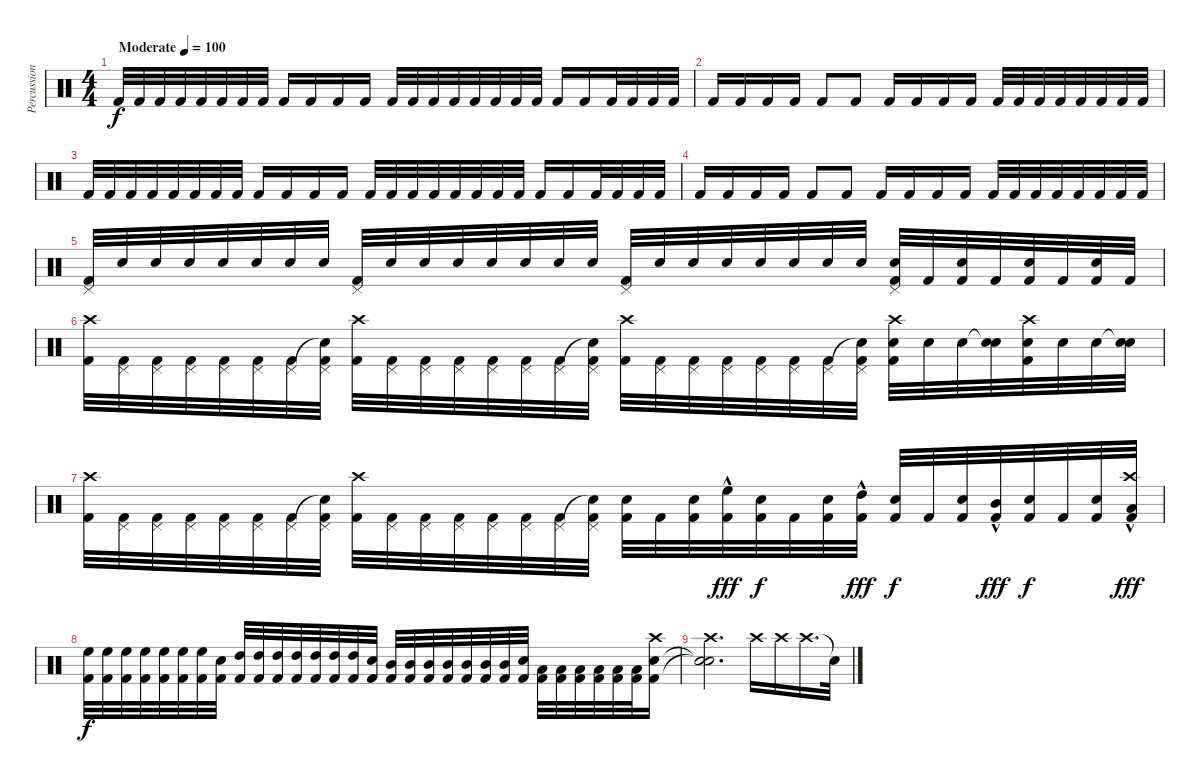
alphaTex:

\track ("Percussion" "Percussion") {instrument percussion}
\staff {score}
\articulation defaults
\ts (4 4)
\tempo (100 "Moderate")
\clef neutral
\ks c "Kick (hit) 2".32{dy f} "Kick (hit) 2".32 "Kick (hit) 2".32 "Kick (hit) 2".32 "Kick (hit) 2".32 "Kick (hit) 2".32 "Kick (hit) 2".32 "Kick (hit) 2".32 "Kick (hit) 2".16 "Kick (hit) 2".16 "Kick (hit) 2".16 "Kick (hit) 2".16 "Kick (hit) 2".32 "Kick (hit) 2".32 "Kick (hit) 2".32 "Kick (hit) 2".32 "Kick (hit) 2".32 "Kick (hit) 2".32 "Kick (hit) 2".32 "Kick (hit) 2".32 "Kick (hit) 2".16 "Kick (hit) 2".16 "Kick (hit) 2".32 "Kick (hit) 2".32 "Kick (hit) 2".32 "Kick (hit) 2".32
|
"Kick (hit) 2".16 "Kick (hit) 2".16 "Kick (hit) 2".16 "Kick (hit) 2".16 "Kick (hit) 2".8 "Kick (hit) 2".8 "Kick (hit) 2".16 "Kick (hit) 2".16 "Kick (hit) 2".16 "Kick (hit) 2".16 "Kick (hit) 2".32 "Kick (hit) 2".32 "Kick (hit) 2".32 "Kick (hit) 2".32 "Kick (hit) 2".32 "Kick (hit) 2".32 "Kick (hit) 2".32 "Kick (hit) 2".32 |
"Kick (hit) 2".32 "Kick (hit) 2".32 "Kick (hit) 2".32 "Kick (hit) 2".32 "Kick (hit) 2".32 "Kick (hit) 2".32 "Kick (hit) 2".32 "Kick (hit) 2".32 "Kick (hit) 2".16 "Kick (hit) 2".16 "Kick (hit) 2".16 "Kick (hit) 2".16 "Kick (hit) 2".32 "Kick (hit) 2".32 "Kick (hit) 2".32 "Kick (hit) 2".32 "Kick (hit) 2".32 "Kick (hit) 2".32 "Kick (hit) 2".32 "Kick (hit) 2".32 "Kick (hit) 2".16 "Kick (hit) 2".16 "Kick (hit) 2".32 "Kick (hit) 2".32 "Kick (hit) 2".32 "Kick (hit) 2".32 |
"Kick (hit) 2".16 "Kick (hit) 2".16 "Kick (hit) 2".16 "Kick (hit) 2".16 "Kick (hit) 2".8 "Kick (hit) 2".8 "Kick (hit) 2".16 "Kick (hit) 2".16 "Kick (hit) 2".16 "Kick (hit) 2".16 "Kick (hit) 2".32 "Kick (hit) 2".32 "Kick (hit) 2".32 "Kick (hit) 2".32 "Kick (hit) 2".32 "Kick (hit) 2".32 "Kick (hit) 2".32 "Kick (hit) 2".32 |
("Pedal Hi-Hat (hit)" "Kick (hit) 2").32 "Snare (hit) 2".32 "Snare (hit) 2".32 "Snare (hit) 2".32 "Snare (hit) 2".32 "Snare (hit) 2".32 "Snare (hit) 2".32 "Snare (hit) 2".32 ("Pedal Hi-Hat (hit)" "Kick (hit) 2").32 "Snare (hit) 2".32 "Snare (hit) 2".32 "Snare (hit) 2".32 "Snare (hit) 2".32 "Snare (hit) 2".32 "Snare (hit) 2".32 "Snare (hit) 2".32 ("Pedal Hi-Hat (hit)" "Kick (hit) 2").32 "Snare (hit) 2".32 "Snare (hit) 2".32 "Snare (hit) 2".32 "Snare (hit) 2".32 "Snare (hit) 2".32 "Snare (hit) 2".32 "Snare (hit) 2".32 ("Pedal Hi-Hat (hit)" "Snare (hit) 2" "Kick (hit) 2").32 "Kick (hit) 2".32 ("Snare (hit) 2" "Kick (hit) 2").32 "Kick (hit) 2".32 ("Snare (hit) 2" "Kick (hit) 2").32 "Kick (hit) 2".32 ("Snare (hit) 2" "Kick (hit) 2").32 "Kick (hit) 2".32 |
("Crash high (hit)" "Kick (hit) 2").32 ("Pedal Hi-Hat (hit)" "Kick (hit) 2").32 ("Pedal Hi-Hat (hit)" "Kick (hit) 2").32 ("Pedal Hi-Hat (hit)" "Kick (hit) 2").32 ("Pedal Hi-Hat (hit)" "Kick (hit) 2").32 ("Pedal Hi-Hat (hit)" "Kick (hit) 2").32 ("Pedal Hi-Hat (hit)" "Kick (hit) 2").32 ("Snare (hit)"{t} "Pedal Hi-Hat (hit)" "Kick (hit) 2").32 ("Crash high (hit)" "Kick (hit) 2").32 ("Pedal Hi-Hat (hit)" "Kick (hit) 2").32 ("Pedal Hi-Hat (hit)" "Kick (hit) 2").32 ("Pedal Hi-Hat (hit)" "Kick (hit) 2").32 ("Pedal Hi-Hat (hit)" "Kick (hit) 2").32 ("Pedal Hi-Hat (hit)" "Kick (hit) 2").32 ("Pedal Hi-Hat (hit)" "Kick (hit) 2").32 ("Snare (hit)"{t} "Pedal Hi-Hat (hit)" "Kick (hit) 2").32 ("Crash high (hit)" "Kick (hit) 2").32 ("Pedal Hi-Hat (hit)" "Kick (hit) 2").32 ("Pedal Hi-Hat (hit)" "Kick (hit) 2").32 ("Pedal Hi-Hat (hit)" "Kick (hit) 2").32 ("Pedal Hi-Hat (hit)" "Kick (hit) 2").32 ("Pedal Hi-Hat (hit)" "Kick (hit) 2").32 ("Pedal Hi-Hat (hit)" "Kick (hit) 2").32 ("Snare (hit)"{t} "Pedal Hi-Hat (hit)" "Kick (hit) 2").32 ("Crash high (hit)" "Snare (hit) 2" "Kick (hit) 2").32 "Snare (hit) 2".32 "Snare (hit) 2".32 ("Snare (hit)"{t} "Snare (hit) 2").32 ("Crash high (hit)" "Snare (hit) 2" "Kick (hit) 2").32 "Snare (hit) 2".32 "Snare (hit) 2".32 ("Snare (hit)"{t} "Snare (hit) 2").32 |
("Crash high (hit)" "Kick (hit) 2").32 ("Pedal Hi-Hat (hit)" "Kick (hit) 2").32 ("Pedal Hi-Hat (hit)" "Kick (hit) 2").32 ("Pedal Hi-Hat (hit)" "Kick (hit) 2").32 ("Pedal Hi-Hat (hit)" "Kick (hit) 2").32 ("Pedal Hi-Hat (hit)" "Kick (hit) 2").32 ("Pedal Hi-Hat (hit)" "Kick (hit) 2").32 ("Snare (hit)"{t} "Pedal Hi-Hat (hit)" "Kick (hit) 2").32 ("Crash high (hit)" "Kick (hit) 2").32 ("Pedal Hi-Hat (hit)" "Kick (hit) 2").32 ("Pedal Hi-Hat (hit)" "Kick (hit) 2").32 ("Pedal Hi-Hat (hit)" "Kick (hit) 2").32 ("Pedal Hi-Hat (hit)" "Kick (hit) 2").32 ("Pedal Hi-Hat (hit)" "Kick (hit) 2").32 ("Pedal Hi-Hat (hit)" "Kick (hit) 2").32 ("Snare (hit)"{t} "Pedal Hi-Hat (hit)" "Kick (hit) 2").32 ("Snare (hit) 2" "Kick (hit) 2").32 "Kick (hit) 2".32 ("Snare (hit) 2" "Kick (hit) 2").32 ("High Floor Tom (hit)"{hac} "Kick (hit) 2").32{dy fff} ("Snare (hit) 2" "Kick (hit) 2").32{dy f} "Kick (hit) 2".32 ("Snare (hit) 2" "Kick (hit) 2").32 ("High Tom (hit)"{hac} "Kick (hit) 2").32{dy fff} ("Snare (hit) 2" "Kick (hit) 2").32{dy f} "Kick (hit) 2".32 ("Snare (hit) 2" "Kick (hit) 2").32 ("Mid Tom (hit)"{hac} "Kick (hit) 2").32{dy fff} ("Snare (hit) 2" "Kick (hit) 2").32{dy f} "Kick (hit) 2".32 ("Snare (hit) 2" "Kick (hit) 2").32 ("Crash high (hit)" "Low Tom (hit)"{hac} "Kick (hit) 2").32{dy fff} |
("High Floor Tom (hit)" "Kick (hit) 2").32{dy f} ("High Floor Tom (hit)" "Kick (hit) 2").32 ("High Floor Tom (hit)" "Kick (hit) 2").32 ("High Floor Tom (hit)" "Kick (hit) 2").32 ("High Floor Tom (hit)" "Kick (hit) 2").32 ("High Floor Tom (hit)" "Kick (hit) 2").32 ("High Floor Tom (hit)" "Kick (hit) 2").32 ("Snare (hit) 2" "Kick (hit) 2").32 ("High Tom (hit)" "Kick (hit) 2").32 ("High Tom (hit)" "Kick (hit) 2").32 ("High Tom (hit)" "Kick (hit) 2").32 ("High Tom (hit)" "Kick (hit) 2").32 ("High Tom (hit)" "Kick (hit) 2").32 ("High Tom (hit)" "Kick (hit) 2").32 ("High Tom (hit)" "Kick (hit) 2").32 ("Snare (hit) 2" "Kick (hit) 2").32 ("Mid Tom (hit)" "Kick (hit) 2").32 ("Mid Tom (hit)" "Kick (hit) 2").32 ("Mid Tom (hit)" "Kick (hit) 2").32 ("Mid Tom (hit)" "Kick (hit) 2").32 ("Mid Tom (hit)" "Kick (hit) 2").32 ("Mid Tom (hit)" "Kick (hit) 2").32 ("Mid Tom (hit)" "Kick (hit) 2").32 ("Snare (hit) 2" "Kick (hit) 2").32 ("Low Tom (hit)" "Kick (hit) 2").32 ("Low Tom (hit)" "Kick (hit) 2").32 ("Low Tom (hit)" "Kick (hit) 2").32 ("Low Tom (hit)" "Kick (hit) 2").32 ("Low Tom (hit)" "Kick (hit) 2").32 ("Low Tom (hit)" "Kick (hit) 2").32 ("Crash high (hit)" "Snare (hit) 2" "Kick (hit) 2").16 |
("Crash high (hit)" "Snare (hit)"{t} "Snare (hit)"{t}).2{d} "Crash high (hit)".16 "Crash high (hit)".16 "Crash high (hit)".16{d} "Snare (hit)"{t}.32
